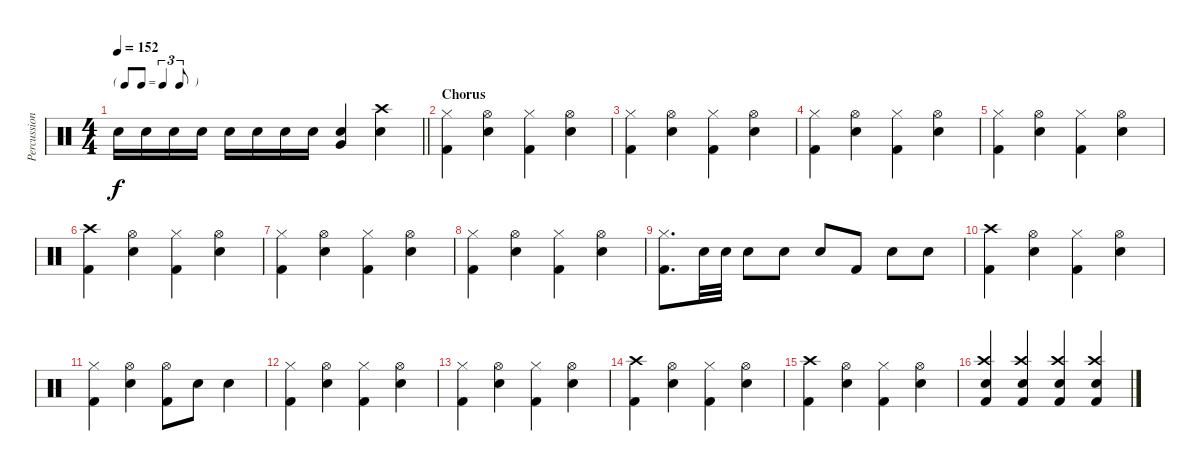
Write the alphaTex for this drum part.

\track ("Percussion" "Percussion") {instrument percussion}
\staff {score}
\articulation defaults
\ts (4 4)
\tf triplet8th
\tempo 152
\clef neutral
\barLineRight lightlight
\ks c "Snare (hit) 2".16{dy f} "Snare (hit) 2".16 "Snare (hit) 2".16 "Snare (hit) 2".16 "Snare (hit) 2".16 "Snare (hit) 2".16 "Snare (hit) 2".16 "Snare (hit) 2".16
("Snare (hit) 2" "Very Low Tom (hit)").4 ("Crash high (hit)" "Snare (hit) 2").4 |
\section ("" "Chorus")
("Hi-Hat (closed)" "Kick (hit) 2").4 ("Hi-Hat (open)" "Snare (hit) 2").4 ("Hi-Hat (closed)" "Kick (hit) 2").4 ("Hi-Hat (open)" "Snare (hit) 2").4 |
("Hi-Hat (closed)" "Kick (hit) 2").4 ("Hi-Hat (open)" "Snare (hit) 2").4 ("Hi-Hat (closed)" "Kick (hit) 2").4 ("Hi-Hat (open)" "Snare (hit) 2").4 |
("Hi-Hat (closed)" "Kick (hit) 2").4 ("Hi-Hat (open)" "Snare (hit) 2").4 ("Hi-Hat (closed)" "Kick (hit) 2").4 ("Hi-Hat (open)" "Snare (hit) 2").4 |
("Hi-Hat (closed)" "Kick (hit) 2").4 ("Hi-Hat (open)" "Snare (hit) 2").4 ("Hi-Hat (closed)" "Kick (hit) 2").4 ("Hi-Hat (open)" "Snare (hit) 2").4 |
("Crash high (hit)" "Kick (hit) 2").4 ("Hi-Hat (open)" "Snare (hit) 2").4 ("Hi-Hat (closed)" "Kick (hit) 2").4 ("Hi-Hat (open)" "Snare (hit) 2").4 |
("Hi-Hat (closed)" "Kick (hit) 2").4 ("Hi-Hat (open)" "Snare (hit) 2").4 ("Hi-Hat (closed)" "Kick (hit) 2").4 ("Hi-Hat (open)" "Snare (hit) 2").4 |
("Hi-Hat (closed)" "Kick (hit) 2").4 ("Hi-Hat (open)" "Snare (hit) 2").4 ("Hi-Hat (closed)" "Kick (hit) 2").4 ("Hi-Hat (open)" "Snare (hit) 2").4 |
("Hi-Hat (closed)" "Kick (hit) 2").8{d} "Snare (hit) 2".32{beam merge} "Snare (hit) 2".32 "Snare (hit) 2".8 "Snare (hit) 2".8 "Snare (hit) 2".8 "Kick (hit) 2".8 "Snare (hit) 2".8 "Snare (hit) 2".8 |
("Crash high (hit)" "Kick (hit) 2").4 ("Hi-Hat (open)" "Snare (hit) 2").4 ("Hi-Hat (closed)" "Kick (hit) 2").4 ("Hi-Hat (open)" "Snare (hit) 2").4 |
("Hi-Hat (closed)" "Kick (hit) 2").4 ("Hi-Hat (open)" "Snare (hit) 2").4 ("Hi-Hat (open)" "Kick (hit) 2").8 "Snare (hit) 2".8 "Snare (hit) 2".4 |
("Hi-Hat (closed)" "Kick (hit) 2").4 ("Hi-Hat (open)" "Snare (hit) 2").4 ("Hi-Hat (closed)" "Kick (hit) 2").4 ("Hi-Hat (open)" "Snare (hit) 2").4 |
("Hi-Hat (closed)" "Kick (hit) 2").4 ("Hi-Hat (open)" "Snare (hit) 2").4 ("Hi-Hat (closed)" "Kick (hit) 2").4 ("Hi-Hat (open)" "Snare (hit) 2").4 |
("Crash high (hit)" "Kick (hit) 2").4 ("Hi-Hat (open)" "Snare (hit) 2").4 ("Hi-Hat (closed)" "Kick (hit) 2").4 ("Hi-Hat (open)" "Snare (hit) 2").4 |
("Crash high (hit)" "Kick (hit) 2").4 ("Hi-Hat (open)" "Snare (hit) 2").4 ("Hi-Hat (closed)" "Kick (hit) 2").4 ("Hi-Hat (open)" "Snare (hit) 2").4 |
("Crash high (hit)" "Snare (hit) 2" "Kick (hit) 2").4 ("Crash high (hit)" "Snare (hit) 2" "Kick (hit) 2").4 ("Crash high (hit)" "Snare (hit) 2" "Kick (hit) 2").4 ("Crash high (hit)" "Snare (hit) 2" "Kick (hit) 2").4
